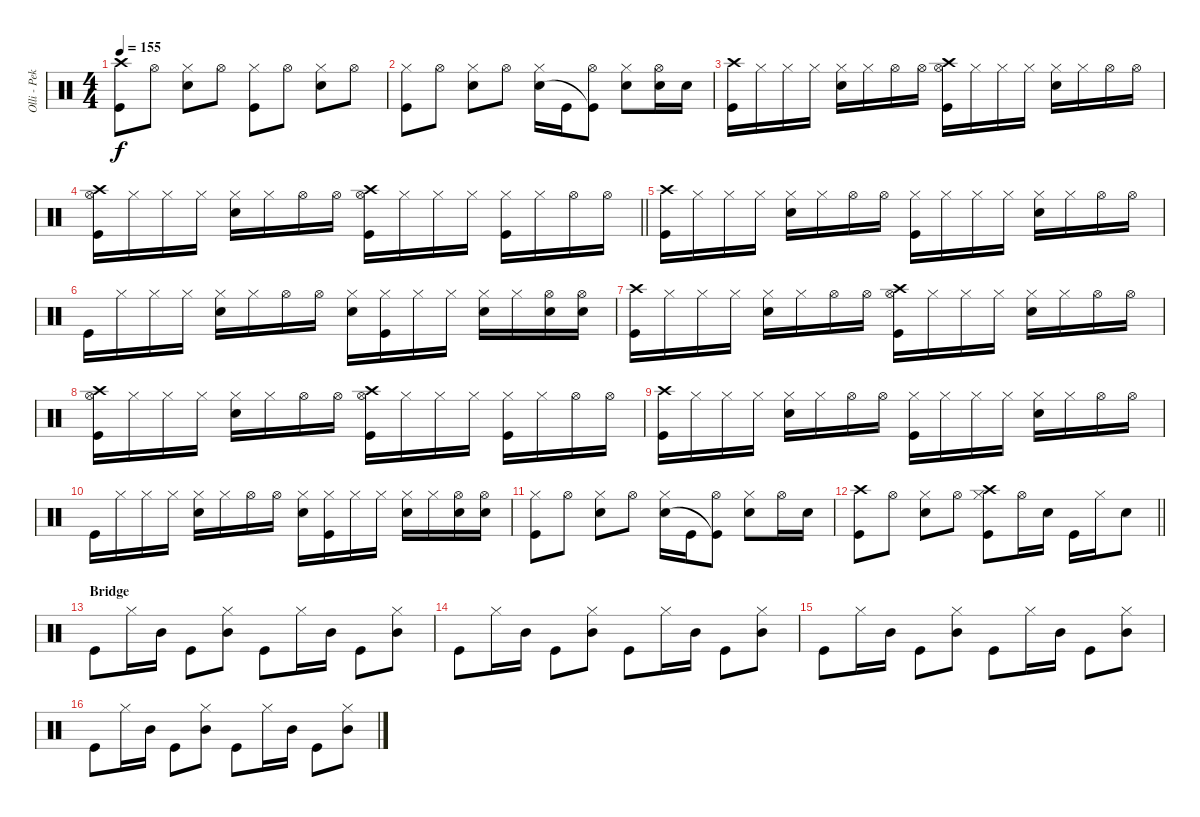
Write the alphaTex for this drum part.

\track ("Olli - Pekka" "Olli - Pek") {instrument percussion}
\staff {score}
\articulation defaults
\ts (4 4)
\tempo 155
\clef neutral
\ks c
("Crash high (hit)" "Kick (hit)").8{dy f} "Hi-Hat (open)".8 ("Hi-Hat (closed)" "Snare (hit) 2").8 "Hi-Hat (open)".8 ("Hi-Hat (closed)" "Kick (hit)").8 "Hi-Hat (open)".8 ("Hi-Hat (closed)" "Snare (hit) 2").8 "Hi-Hat (open)".8 |
("Hi-Hat (closed)" "Kick (hit)").8 "Hi-Hat (open)".8 ("Hi-Hat (closed)" "Snare (hit) 2").8 "Hi-Hat (open)".8 ("Hi-Hat (closed)" "Snare (hit) 2").16 "Kick (hit)".16 ("Hi-Hat (open)" "Kick (hit)"{t}).8 ("Hi-Hat (closed)" "Snare (hit) 2").8 ("Hi-Hat (open)" "Snare (hit) 2").16 "Snare (hit) 2".16 |
("Crash high (hit)" "Kick (hit)").16 "Hi-Hat (closed)".16 "Hi-Hat (closed)".16 "Hi-Hat (closed)".16 ("Hi-Hat (closed)" "Snare (hit) 2").16 "Hi-Hat (closed)".16 "Hi-Hat (open)".16 "Hi-Hat (open)".16 ("Crash high (hit)" "Hi-Hat (open)" "Kick (hit)").16 "Hi-Hat (closed)".16 "Hi-Hat (closed)".16 "Hi-Hat (closed)".16 ("Hi-Hat (closed)" "Snare (hit) 2").16 "Hi-Hat (closed)".16 "Hi-Hat (open)".16 "Hi-Hat (open)".16 |
\barLineRight lightlight
("Crash high (hit)" "Hi-Hat (open)" "Kick (hit)").16 "Hi-Hat (closed)".16 "Hi-Hat (closed)".16 "Hi-Hat (closed)".16 ("Hi-Hat (closed)" "Snare (hit) 2").16 "Hi-Hat (closed)".16 "Hi-Hat (open)".16 "Hi-Hat (open)".16 ("Crash high (hit)" "Hi-Hat (open)" "Kick (hit)").16 "Hi-Hat (closed)".16 "Hi-Hat (closed)".16 "Hi-Hat (closed)".16 ("Hi-Hat (closed)" "Kick (hit)").16 "Hi-Hat (closed)".16 "Hi-Hat (open)".16 "Hi-Hat (open)".16 |
("Crash high (hit)" "Kick (hit)").16 "Hi-Hat (closed)".16 "Hi-Hat (closed)".16 "Hi-Hat (closed)".16 ("Hi-Hat (closed)" "Snare (hit) 2").16 "Hi-Hat (closed)".16 "Hi-Hat (open)".16 "Hi-Hat (open)".16 ("Hi-Hat (closed)" "Kick (hit)").16 "Hi-Hat (closed)".16 "Hi-Hat (closed)".16 "Hi-Hat (closed)".16 ("Hi-Hat (closed)" "Snare (hit) 2").16 "Hi-Hat (closed)".16 "Hi-Hat (open)".16 "Hi-Hat (open)".16 |
"Kick (hit)".16 "Hi-Hat (closed)".16 "Hi-Hat (closed)".16 "Hi-Hat (closed)".16 ("Hi-Hat (closed)" "Snare (hit) 2").16 "Hi-Hat (closed)".16 "Hi-Hat (open)".16 "Hi-Hat (open)".16 ("Hi-Hat (closed)" "Snare (hit) 2").16 ("Hi-Hat (closed)" "Kick (hit)").16 "Hi-Hat (closed)".16 "Hi-Hat (closed)".16 ("Hi-Hat (closed)" "Snare (hit) 2").16 "Hi-Hat (closed)".16 ("Hi-Hat (open)" "Snare (hit) 2").16 ("Hi-Hat (open)" "Snare (hit) 2").16 |
("Crash high (hit)" "Kick (hit)").16 "Hi-Hat (closed)".16 "Hi-Hat (closed)".16 "Hi-Hat (closed)".16 ("Hi-Hat (closed)" "Snare (hit) 2").16 "Hi-Hat (closed)".16 "Hi-Hat (open)".16 "Hi-Hat (open)".16 ("Crash high (hit)" "Hi-Hat (open)" "Kick (hit)").16 "Hi-Hat (closed)".16 "Hi-Hat (closed)".16 "Hi-Hat (closed)".16 ("Hi-Hat (closed)" "Snare (hit) 2").16 "Hi-Hat (closed)".16 "Hi-Hat (open)".16 "Hi-Hat (open)".16 |
("Crash high (hit)" "Hi-Hat (open)" "Kick (hit)").16 "Hi-Hat (closed)".16 "Hi-Hat (closed)".16 "Hi-Hat (closed)".16 ("Hi-Hat (closed)" "Snare (hit) 2").16 "Hi-Hat (closed)".16 "Hi-Hat (open)".16 "Hi-Hat (open)".16 ("Crash high (hit)" "Hi-Hat (open)" "Kick (hit)").16 "Hi-Hat (closed)".16 "Hi-Hat (closed)".16 "Hi-Hat (closed)".16 ("Hi-Hat (closed)" "Kick (hit)").16 "Hi-Hat (closed)".16 "Hi-Hat (open)".16 "Hi-Hat (open)".16 |
("Crash high (hit)" "Kick (hit)").16 "Hi-Hat (closed)".16 "Hi-Hat (closed)".16 "Hi-Hat (closed)".16 ("Hi-Hat (closed)" "Snare (hit) 2").16 "Hi-Hat (closed)".16 "Hi-Hat (open)".16 "Hi-Hat (open)".16 ("Hi-Hat (closed)" "Kick (hit)").16 "Hi-Hat (closed)".16 "Hi-Hat (closed)".16 "Hi-Hat (closed)".16 ("Hi-Hat (closed)" "Snare (hit) 2").16 "Hi-Hat (closed)".16 "Hi-Hat (open)".16 "Hi-Hat (open)".16 |
"Kick (hit)".16 "Hi-Hat (closed)".16 "Hi-Hat (closed)".16 "Hi-Hat (closed)".16 ("Hi-Hat (closed)" "Snare (hit) 2").16 "Hi-Hat (closed)".16 "Hi-Hat (open)".16 "Hi-Hat (open)".16 ("Hi-Hat (closed)" "Snare (hit) 2").16 ("Hi-Hat (closed)" "Kick (hit)").16 "Hi-Hat (closed)".16 "Hi-Hat (closed)".16 ("Hi-Hat (closed)" "Snare (hit) 2").16 "Hi-Hat (closed)".16 ("Hi-Hat (open)" "Snare (hit) 2").16 ("Hi-Hat (open)" "Snare (hit) 2").16 |
("Hi-Hat (closed)" "Kick (hit)").8 "Hi-Hat (open)".8 ("Hi-Hat (closed)" "Snare (hit) 2").8 "Hi-Hat (open)".8 ("Hi-Hat (closed)" "Snare (hit) 2").16 "Kick (hit)".16 ("Hi-Hat (open)" "Kick (hit)"{t}).8 ("Hi-Hat (closed)" "Snare (hit) 2").8 "Hi-Hat (open)".16 "Snare (hit) 2".16 |
\barLineRight lightlight
("Crash high (hit)" "Kick (hit)").8 "Hi-Hat (open)".8 ("Hi-Hat (closed)" "Snare (hit) 2").8 "Hi-Hat (open)".8 ("Crash high (hit)" "Hi-Hat (closed)" "Kick (hit)").8 "Hi-Hat (open)".16 "Snare (hit) 2".16 "Kick (hit)".16 "Hi-Hat (closed)".16 "Snare (hit) 2".8 |
\section ("" "Bridge")
"Kick (hit)".8{volume 11} "Hi-Hat (closed)".16 "Mid Tom (hit)".16 "Kick (hit)".8 ("Hi-Hat (closed)" "Mid Tom (hit)").8 "Kick (hit)".8 "Hi-Hat (closed)".16 "Mid Tom (hit)".16 "Kick (hit)".8 ("Hi-Hat (closed)" "Mid Tom (hit)").8 |
"Kick (hit)".8 "Hi-Hat (closed)".16 "Mid Tom (hit)".16 "Kick (hit)".8 ("Hi-Hat (closed)" "Mid Tom (hit)").8 "Kick (hit)".8 "Hi-Hat (closed)".16 "Mid Tom (hit)".16 "Kick (hit)".8 ("Hi-Hat (closed)" "Mid Tom (hit)").8 |
"Kick (hit)".8 "Hi-Hat (closed)".16 "Mid Tom (hit)".16 "Kick (hit)".8 ("Hi-Hat (closed)" "Mid Tom (hit)").8 "Kick (hit)".8 "Hi-Hat (closed)".16 "Mid Tom (hit)".16 "Kick (hit)".8 ("Hi-Hat (closed)" "Mid Tom (hit)").8 |
"Kick (hit)".8 "Hi-Hat (closed)".16 "Mid Tom (hit)".16 "Kick (hit)".8 ("Hi-Hat (closed)" "Mid Tom (hit)").8 "Kick (hit)".8 "Hi-Hat (closed)".16 "Mid Tom (hit)".16 "Kick (hit)".8 ("Hi-Hat (closed)" "Mid Tom (hit)").8
